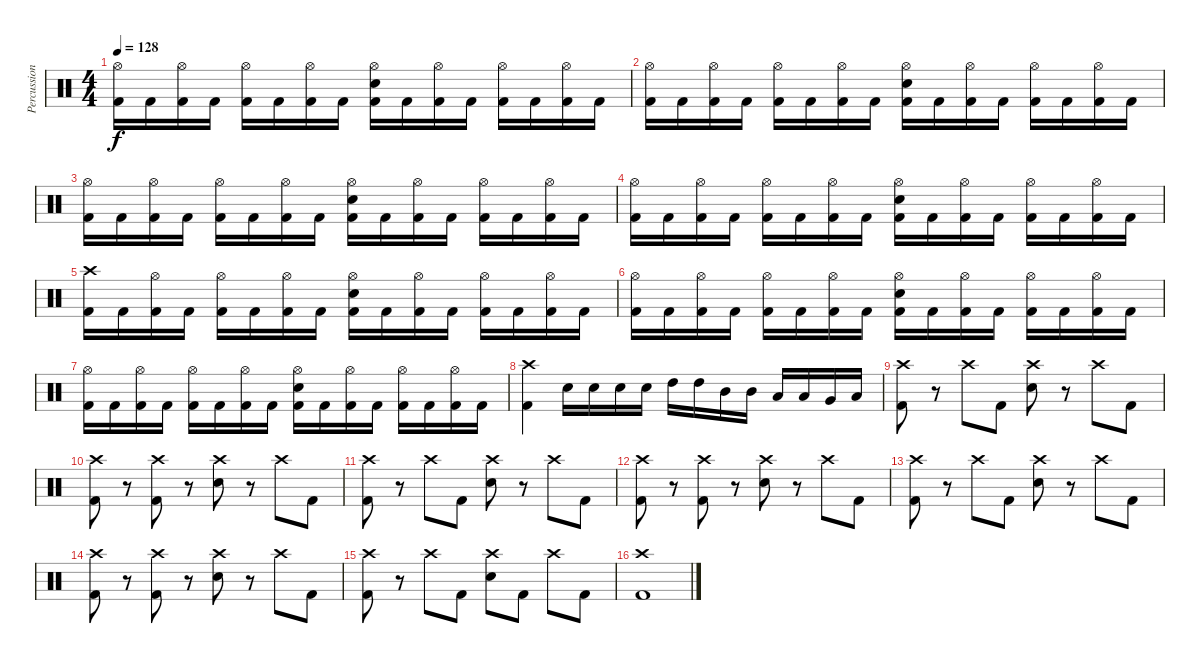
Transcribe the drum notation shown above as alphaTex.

\track ("Percussion" "Percussion") {instrument percussion}
\staff {score}
\articulation defaults
\ts (4 4)
\tempo 128
\clef neutral
\ks c
("Hi-Hat (open)" "Kick (hit) 2").16{dy f} "Kick (hit) 2".16 ("Hi-Hat (open)" "Kick (hit) 2").16 "Kick (hit) 2".16 ("Hi-Hat (open)" "Kick (hit) 2").16 "Kick (hit) 2".16 ("Hi-Hat (open)" "Kick (hit) 2").16 "Kick (hit) 2".16 ("Hi-Hat (open)" "Electric Snare (hit)" "Kick (hit) 2").16 "Kick (hit) 2".16 ("Hi-Hat (open)" "Kick (hit) 2").16 "Kick (hit) 2".16 ("Hi-Hat (open)" "Kick (hit) 2").16 "Kick (hit) 2".16 ("Hi-Hat (open)" "Kick (hit) 2").16 "Kick (hit) 2".16 |
("Hi-Hat (open)" "Kick (hit) 2").16 "Kick (hit) 2".16 ("Hi-Hat (open)" "Kick (hit) 2").16 "Kick (hit) 2".16 ("Hi-Hat (open)" "Kick (hit) 2").16 "Kick (hit) 2".16 ("Hi-Hat (open)" "Kick (hit) 2").16 "Kick (hit) 2".16 ("Hi-Hat (open)" "Electric Snare (hit)" "Kick (hit) 2").16 "Kick (hit) 2".16 ("Hi-Hat (open)" "Kick (hit) 2").16 "Kick (hit) 2".16 ("Hi-Hat (open)" "Kick (hit) 2").16 "Kick (hit) 2".16 ("Hi-Hat (open)" "Kick (hit) 2").16 "Kick (hit) 2".16 |
("Hi-Hat (open)" "Kick (hit) 2").16 "Kick (hit) 2".16 ("Hi-Hat (open)" "Kick (hit) 2").16 "Kick (hit) 2".16 ("Hi-Hat (open)" "Kick (hit) 2").16 "Kick (hit) 2".16 ("Hi-Hat (open)" "Kick (hit) 2").16 "Kick (hit) 2".16 ("Hi-Hat (open)" "Electric Snare (hit)" "Kick (hit) 2").16 "Kick (hit) 2".16 ("Hi-Hat (open)" "Kick (hit) 2").16 "Kick (hit) 2".16 ("Hi-Hat (open)" "Kick (hit) 2").16 "Kick (hit) 2".16 ("Hi-Hat (open)" "Kick (hit) 2").16 "Kick (hit) 2".16 |
("Hi-Hat (open)" "Kick (hit) 2").16 "Kick (hit) 2".16 ("Hi-Hat (open)" "Kick (hit) 2").16 "Kick (hit) 2".16 ("Hi-Hat (open)" "Kick (hit) 2").16 "Kick (hit) 2".16 ("Hi-Hat (open)" "Kick (hit) 2").16 "Kick (hit) 2".16 ("Hi-Hat (open)" "Electric Snare (hit)" "Kick (hit) 2").16 "Kick (hit) 2".16 ("Hi-Hat (open)" "Kick (hit) 2").16 "Kick (hit) 2".16 ("Hi-Hat (open)" "Kick (hit) 2").16 "Kick (hit) 2".16 ("Hi-Hat (open)" "Kick (hit) 2").16 "Kick (hit) 2".16 |
("Crash high (hit)" "Kick (hit) 2").16 "Kick (hit) 2".16 ("Hi-Hat (open)" "Kick (hit) 2").16 "Kick (hit) 2".16 ("Hi-Hat (open)" "Kick (hit) 2").16 "Kick (hit) 2".16 ("Hi-Hat (open)" "Kick (hit) 2").16 "Kick (hit) 2".16 ("Hi-Hat (open)" "Electric Snare (hit)" "Kick (hit) 2").16 "Kick (hit) 2".16 ("Hi-Hat (open)" "Kick (hit) 2").16 "Kick (hit) 2".16 ("Hi-Hat (open)" "Kick (hit) 2").16 "Kick (hit) 2".16 ("Hi-Hat (open)" "Kick (hit) 2").16 "Kick (hit) 2".16 |
("Hi-Hat (open)" "Kick (hit) 2").16 "Kick (hit) 2".16 ("Hi-Hat (open)" "Kick (hit) 2").16 "Kick (hit) 2".16 ("Hi-Hat (open)" "Kick (hit) 2").16 "Kick (hit) 2".16 ("Hi-Hat (open)" "Kick (hit) 2").16 "Kick (hit) 2".16 ("Hi-Hat (open)" "Electric Snare (hit)" "Kick (hit) 2").16 "Kick (hit) 2".16 ("Hi-Hat (open)" "Kick (hit) 2").16 "Kick (hit) 2".16 ("Hi-Hat (open)" "Kick (hit) 2").16 "Kick (hit) 2".16 ("Hi-Hat (open)" "Kick (hit) 2").16 "Kick (hit) 2".16 |
("Hi-Hat (open)" "Kick (hit) 2").16 "Kick (hit) 2".16 ("Hi-Hat (open)" "Kick (hit) 2").16 "Kick (hit) 2".16 ("Hi-Hat (open)" "Kick (hit) 2").16 "Kick (hit) 2".16 ("Hi-Hat (open)" "Kick (hit) 2").16 "Kick (hit) 2".16 ("Hi-Hat (open)" "Electric Snare (hit)" "Kick (hit) 2").16 "Kick (hit) 2".16 ("Hi-Hat (open)" "Kick (hit) 2").16 "Kick (hit) 2".16 ("Hi-Hat (open)" "Kick (hit) 2").16 "Kick (hit) 2".16 ("Hi-Hat (open)" "Kick (hit) 2").16 "Kick (hit) 2".16 |
("Crash high (hit)" "Kick (hit) 2").4 "Electric Snare (hit)".16 "Electric Snare (hit)".16 "Electric Snare (hit)".16 "Electric Snare (hit)".16 "High Tom (hit)".16 "High Tom (hit)".16 "Mid Tom (hit)".16 "Mid Tom (hit)".16 "Low Tom (hit)".16 "Low Tom (hit)".16 "Very Low Tom (hit)".16 "Low Floor Tom (hit)".16 |
("Crash high (hit)" "Kick (hit) 2").8 r.8 "Crash high (hit)".8 "Kick (hit) 2".8 ("Crash high (hit)" "Electric Snare (hit)").8 r.8 "Crash high (hit)".8 "Kick (hit) 2".8 |
("Crash high (hit)" "Kick (hit) 2").8 r.8 ("Crash high (hit)" "Kick (hit) 2").8 r.8 ("Crash high (hit)" "Electric Snare (hit)").8 r.8 "Crash high (hit)".8 "Kick (hit) 2".8 |
("Crash high (hit)" "Kick (hit) 2").8 r.8 "Crash high (hit)".8 "Kick (hit) 2".8 ("Crash high (hit)" "Electric Snare (hit)").8 r.8 "Crash high (hit)".8 "Kick (hit) 2".8 |
("Crash high (hit)" "Kick (hit) 2").8 r.8 ("Crash high (hit)" "Kick (hit) 2").8 r.8 ("Crash high (hit)" "Electric Snare (hit)").8 r.8 "Crash high (hit)".8 "Kick (hit) 2".8 |
("Crash high (hit)" "Kick (hit) 2").8 r.8 "Crash high (hit)".8 "Kick (hit) 2".8 ("Crash high (hit)" "Electric Snare (hit)").8 r.8 "Crash high (hit)".8 "Kick (hit) 2".8 |
("Crash high (hit)" "Kick (hit) 2").8 r.8 ("Crash high (hit)" "Kick (hit) 2").8 r.8 ("Crash high (hit)" "Electric Snare (hit)").8 r.8 "Crash high (hit)".8 "Kick (hit) 2".8 |
("Crash high (hit)" "Kick (hit) 2").8 r.8 "Crash high (hit)".8 "Kick (hit) 2".8 ("Crash high (hit)" "Electric Snare (hit)").8 "Kick (hit) 2".8 "Crash high (hit)".8 "Kick (hit) 2".8 |
("Crash high (hit)" "Kick (hit) 2").1
